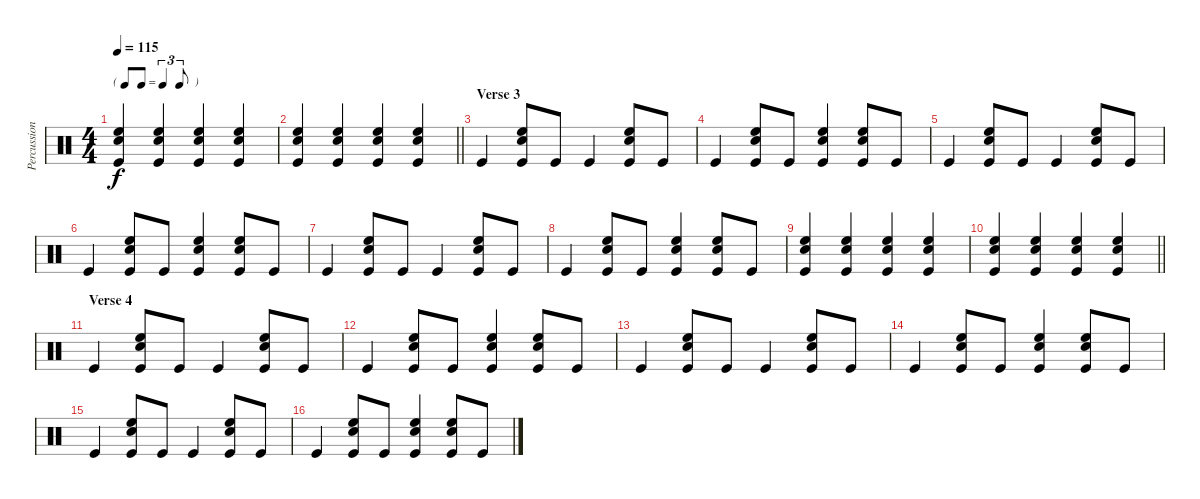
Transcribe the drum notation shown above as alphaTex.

\track ("Percussions" "Percussion") {instrument percussion}
\staff {score}
\articulation defaults
\ts (4 4)
\tf triplet8th
\tempo 115
\clef neutral
\ks c
("High Floor Tom (hit)" "Snare (hit) 2" "Kick (hit)").4{dy f} ("High Floor Tom (hit)" "Snare (hit) 2" "Kick (hit)").4 ("High Floor Tom (hit)" "Snare (hit) 2" "Kick (hit)").4 ("High Floor Tom (hit)" "Snare (hit) 2" "Kick (hit)").4 |
\barLineRight lightlight
("High Floor Tom (hit)" "Snare (hit) 2" "Kick (hit)").4 ("High Floor Tom (hit)" "Snare (hit) 2" "Kick (hit)").4 ("High Floor Tom (hit)" "Snare (hit) 2" "Kick (hit)").4 ("High Floor Tom (hit)" "Snare (hit) 2" "Kick (hit)").4 |
\section ("" "Verse 3")
"Kick (hit)".4 ("High Floor Tom (hit)" "Snare (hit) 2" "Kick (hit)").8 "Kick (hit)".8 "Kick (hit)".4 ("High Floor Tom (hit)" "Snare (hit) 2" "Kick (hit)").8 "Kick (hit)".8 |
"Kick (hit)".4 ("High Floor Tom (hit)" "Snare (hit) 2" "Kick (hit)").8 "Kick (hit)".8 ("High Floor Tom (hit)" "Snare (hit) 2" "Kick (hit)").4 ("High Floor Tom (hit)" "Snare (hit) 2" "Kick (hit)").8 "Kick (hit)".8 |
"Kick (hit)".4 ("High Floor Tom (hit)" "Snare (hit) 2" "Kick (hit)").8 "Kick (hit)".8 "Kick (hit)".4 ("High Floor Tom (hit)" "Snare (hit) 2" "Kick (hit)").8 "Kick (hit)".8 |
"Kick (hit)".4 ("High Floor Tom (hit)" "Snare (hit) 2" "Kick (hit)").8 "Kick (hit)".8 ("High Floor Tom (hit)" "Snare (hit) 2" "Kick (hit)").4 ("High Floor Tom (hit)" "Snare (hit) 2" "Kick (hit)").8 "Kick (hit)".8 |
"Kick (hit)".4 ("High Floor Tom (hit)" "Snare (hit) 2" "Kick (hit)").8 "Kick (hit)".8 "Kick (hit)".4 ("High Floor Tom (hit)" "Snare (hit) 2" "Kick (hit)").8 "Kick (hit)".8 |
"Kick (hit)".4 ("High Floor Tom (hit)" "Snare (hit) 2" "Kick (hit)").8 "Kick (hit)".8 ("High Floor Tom (hit)" "Snare (hit) 2" "Kick (hit)").4 ("High Floor Tom (hit)" "Snare (hit) 2" "Kick (hit)").8 "Kick (hit)".8 |
("High Floor Tom (hit)" "Snare (hit) 2" "Kick (hit)").4 ("High Floor Tom (hit)" "Snare (hit) 2" "Kick (hit)").4 ("High Floor Tom (hit)" "Snare (hit) 2" "Kick (hit)").4 ("High Floor Tom (hit)" "Snare (hit) 2" "Kick (hit)").4 |
\barLineRight lightlight
("High Floor Tom (hit)" "Snare (hit) 2" "Kick (hit)").4 ("High Floor Tom (hit)" "Snare (hit) 2" "Kick (hit)").4 ("High Floor Tom (hit)" "Snare (hit) 2" "Kick (hit)").4 ("High Floor Tom (hit)" "Snare (hit) 2" "Kick (hit)").4 |
\section ("" "Verse 4")
"Kick (hit)".4 ("High Floor Tom (hit)" "Snare (hit) 2" "Kick (hit)").8 "Kick (hit)".8 "Kick (hit)".4 ("High Floor Tom (hit)" "Snare (hit) 2" "Kick (hit)").8 "Kick (hit)".8 |
"Kick (hit)".4 ("High Floor Tom (hit)" "Snare (hit) 2" "Kick (hit)").8 "Kick (hit)".8 ("High Floor Tom (hit)" "Snare (hit) 2" "Kick (hit)").4 ("High Floor Tom (hit)" "Snare (hit) 2" "Kick (hit)").8 "Kick (hit)".8 |
"Kick (hit)".4 ("High Floor Tom (hit)" "Snare (hit) 2" "Kick (hit)").8 "Kick (hit)".8 "Kick (hit)".4 ("High Floor Tom (hit)" "Snare (hit) 2" "Kick (hit)").8 "Kick (hit)".8 |
"Kick (hit)".4 ("High Floor Tom (hit)" "Snare (hit) 2" "Kick (hit)").8 "Kick (hit)".8 ("High Floor Tom (hit)" "Snare (hit) 2" "Kick (hit)").4 ("High Floor Tom (hit)" "Snare (hit) 2" "Kick (hit)").8 "Kick (hit)".8 |
"Kick (hit)".4 ("High Floor Tom (hit)" "Snare (hit) 2" "Kick (hit)").8 "Kick (hit)".8 "Kick (hit)".4 ("High Floor Tom (hit)" "Snare (hit) 2" "Kick (hit)").8 "Kick (hit)".8 |
"Kick (hit)".4 ("High Floor Tom (hit)" "Snare (hit) 2" "Kick (hit)").8 "Kick (hit)".8 ("High Floor Tom (hit)" "Snare (hit) 2" "Kick (hit)").4 ("High Floor Tom (hit)" "Snare (hit) 2" "Kick (hit)").8 "Kick (hit)".8
